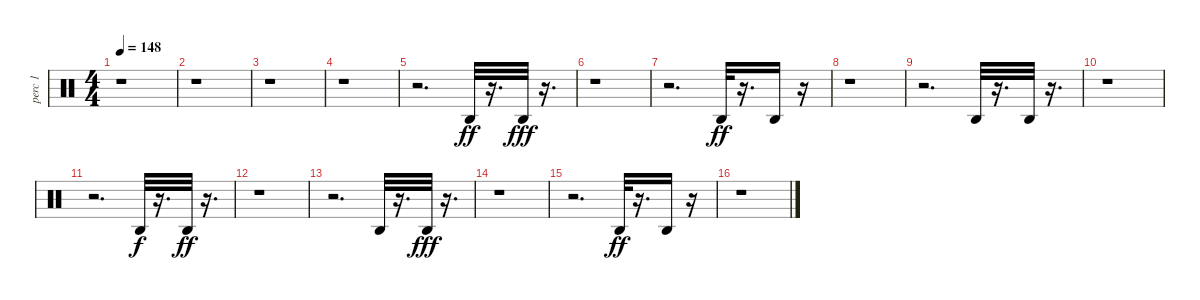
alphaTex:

\track ("perc 1              " "perc 1    ") {instrument percussion}
\staff {score}
\articulation defaults
\ts (4 4)
\tempo 148
\clef neutral
\ks c
r.1{dy ff} |
r.1 |
r.1 |
r.1 |
r.2{d} "Agogo high (hit)".32 r.16{d} "Agogo high (hit)".32{dy fff} r.16{d} |
r.1 |
r.2{d} "Agogo high (hit)".32{dy ff} r.16{d} "Agogo high (hit)".16 r.16 |
r.1 |
r.2{d} "Agogo high (hit)".32 r.16{d} "Agogo high (hit)".32 r.16{d} |
r.1 |
r.2{d} "Agogo high (hit)".32{dy f} r.16{d} "Agogo high (hit)".32{dy ff} r.16{d} |
r.1 |
r.2{d} "Agogo high (hit)".32 r.16{d} "Agogo high (hit)".32{dy fff} r.16{d} |
r.1 |
r.2{d} "Agogo high (hit)".32{dy ff} r.16{d} "Agogo high (hit)".16 r.16 |
r.1
